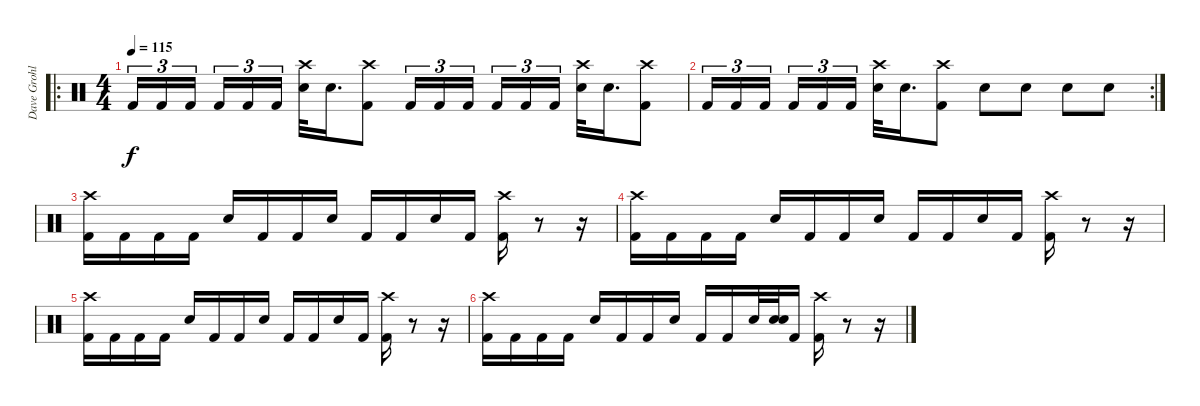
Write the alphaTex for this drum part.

\track ("Dave Grohl" "Dave Grohl") {instrument percussion}
\staff {score}
\articulation defaults
\ro
\ts (4 4)
\tempo 115
\clef neutral
\ks c "Kick (hit) 2".16{tu (3 2) dy f} "Kick (hit) 2".16{tu (3 2)} "Kick (hit) 2".16{tu (3 2) beam splitsecondary} "Kick (hit) 2".16{tu (3 2)} "Kick (hit) 2".16{tu (3 2)} "Kick (hit) 2".16{tu (3 2)}
("Crash high (hit)" "Snare (hit) 2").32 "Snare (hit) 2".16{d} ("Crash high (hit)" "Kick (hit) 2").8 "Kick (hit) 2".16{tu (3 2)} "Kick (hit) 2".16{tu (3 2)} "Kick (hit) 2".16{tu (3 2) beam splitsecondary} "Kick (hit) 2".16{tu (3 2)} "Kick (hit) 2".16{tu (3 2)} "Kick (hit) 2".16{tu (3 2)} ("Crash high (hit)" "Snare (hit) 2").32 "Snare (hit) 2".16{d} ("Crash high (hit)" "Kick (hit) 2").8 |
\rc 2 "Kick (hit) 2".16{tu (3 2)} "Kick (hit) 2".16{tu (3 2)} "Kick (hit) 2".16{tu (3 2) beam splitsecondary} "Kick (hit) 2".16{tu (3 2)} "Kick (hit) 2".16{tu (3 2)} "Kick (hit) 2".16{tu (3 2)}
("Crash high (hit)" "Snare (hit) 2").32 "Snare (hit) 2".16{d} ("Crash high (hit)" "Kick (hit) 2").8 "Snare (hit) 2".8 "Snare (hit) 2".8 "Snare (hit) 2".8 "Snare (hit) 2".8 |
("Crash high (hit)" "Kick (hit) 2").16 "Kick (hit) 2".16 "Kick (hit) 2".16 "Kick (hit) 2".16 "Snare (hit) 2".16 "Kick (hit) 2".16 "Kick (hit) 2".16 "Snare (hit) 2".16 "Kick (hit) 2".16 "Kick (hit) 2".16 "Snare (hit) 2".16 "Kick (hit) 2".16 ("Crash high (hit)" "Kick (hit) 2").16 r.8 r.16 |
("Crash high (hit)" "Kick (hit) 2").16 "Kick (hit) 2".16 "Kick (hit) 2".16 "Kick (hit) 2".16 "Snare (hit) 2".16 "Kick (hit) 2".16 "Kick (hit) 2".16 "Snare (hit) 2".16 "Kick (hit) 2".16 "Kick (hit) 2".16 "Snare (hit) 2".16 "Kick (hit) 2".16 ("Crash high (hit)" "Kick (hit) 2").16 r.8 r.16 |
("Crash high (hit)" "Kick (hit) 2").16 "Kick (hit) 2".16 "Kick (hit) 2".16 "Kick (hit) 2".16 "Snare (hit) 2".16 "Kick (hit) 2".16 "Kick (hit) 2".16 "Snare (hit) 2".16 "Kick (hit) 2".16 "Kick (hit) 2".16 "Snare (hit) 2".16 "Kick (hit) 2".16 ("Crash high (hit)" "Kick (hit) 2").16 r.8 r.16 |
("Crash high (hit)" "Kick (hit) 2").16 "Kick (hit) 2".16 "Kick (hit) 2".16 "Kick (hit) 2".16 "Snare (hit) 2".16 "Kick (hit) 2".16 "Kick (hit) 2".16 "Snare (hit) 2".16 "Kick (hit) 2".16 "Kick (hit) 2".16 "Snare (hit) 2".32 ("Snare (hit) 2" "Snare (hit) 2").32 "Kick (hit) 2".16 ("Crash high (hit)" "Kick (hit) 2").16 r.8 r.16
